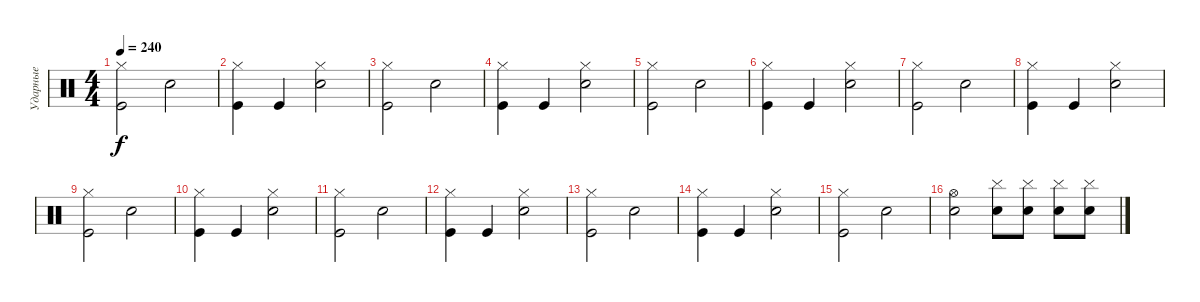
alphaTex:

\track ("Ударные" "Ударные") {instrument percussion}
\staff {score}
\articulation defaults
\ts (4 4)
\tempo 240
\clef neutral
\ks c
("Hi-Hat (closed)" "Kick (hit)").2{dy f} "Snare (hit) 2".2 |
("Hi-Hat (closed)" "Kick (hit)").4 "Kick (hit)".4 ("Hi-Hat (closed)" "Snare (hit) 2").2 |
("Hi-Hat (closed)" "Kick (hit)").2 "Snare (hit) 2".2 |
("Hi-Hat (closed)" "Kick (hit)").4 "Kick (hit)".4 ("Hi-Hat (closed)" "Snare (hit) 2").2 |
("Hi-Hat (closed)" "Kick (hit)").2 "Snare (hit) 2".2 |
("Hi-Hat (closed)" "Kick (hit)").4 "Kick (hit)".4 ("Hi-Hat (closed)" "Snare (hit) 2").2 |
("Hi-Hat (closed)" "Kick (hit)").2 "Snare (hit) 2".2 |
("Hi-Hat (closed)" "Kick (hit)").4 "Kick (hit)".4 ("Hi-Hat (closed)" "Snare (hit) 2").2 |
("Hi-Hat (closed)" "Kick (hit)").2 "Snare (hit) 2".2 |
("Hi-Hat (closed)" "Kick (hit)").4 "Kick (hit)".4 ("Hi-Hat (closed)" "Snare (hit) 2").2 |
("Hi-Hat (closed)" "Kick (hit)").2 "Snare (hit) 2".2 |
("Hi-Hat (closed)" "Kick (hit)").4 "Kick (hit)".4 ("Hi-Hat (closed)" "Snare (hit) 2").2 |
("Hi-Hat (closed)" "Kick (hit)").2 "Snare (hit) 2".2 |
("Hi-Hat (closed)" "Kick (hit)").4 "Kick (hit)".4 ("Hi-Hat (closed)" "Snare (hit) 2").2 |
("Hi-Hat (closed)" "Kick (hit)").2 "Snare (hit) 2".2 |
("Hi-Hat (open)" "Snare (hit) 2").2 ("Cymbal (hit)" "Electric Snare (hit)").8 ("Cymbal (hit)" "Electric Snare (hit)").8 ("Cymbal (hit)" "Electric Snare (hit)").8 ("Cymbal (hit)" "Electric Snare (hit)").8
